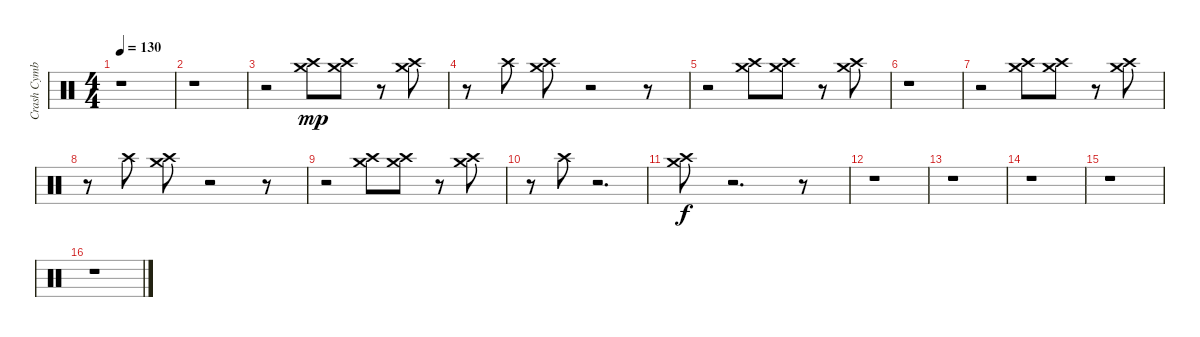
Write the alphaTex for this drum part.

\track ("Crash Cymbal" "Crash Cymb") {instrument percussion}
\staff {score}
\articulation defaults
\ts (4 4)
\tempo 130
\clef neutral
\ks c
r.1{dy f} |
r.1 |
r.2 ("Crash high (hit)" "Crash medium (hit)").8{dy mp} ("Crash high (hit)" "Crash medium (hit)").8 r.8 ("Crash high (hit)" "Crash medium (hit)").8 |
r.8 "Crash high (hit)".8 ("Crash medium (hit)" "Crash high (hit)").8 r.2 r.8 |
r.2 ("Crash high (hit)" "Crash medium (hit)").8 ("Crash medium (hit)" "Crash high (hit)").8 r.8 ("Crash high (hit)" "Crash medium (hit)").8 |
r.1 |
r.2 ("Crash medium (hit)" "Crash high (hit)").8 ("Crash medium (hit)" "Crash high (hit)").8 r.8 ("Crash medium (hit)" "Crash high (hit)").8 |
r.8 "Crash high (hit)".8 ("Crash high (hit)" "Crash medium (hit)").8 r.2 r.8 |
r.2 ("Crash medium (hit)" "Crash high (hit)").8 ("Crash high (hit)" "Crash medium (hit)").8 r.8 ("Crash high (hit)" "Crash medium (hit)").8 |
r.8 "Crash high (hit)".8 r.2{d} |
("Crash high (hit)" "Crash medium (hit)").8{dy f} r.2{d} r.8 |
r.1 |
r.1 |
r.1 |
r.1 |
r.1
